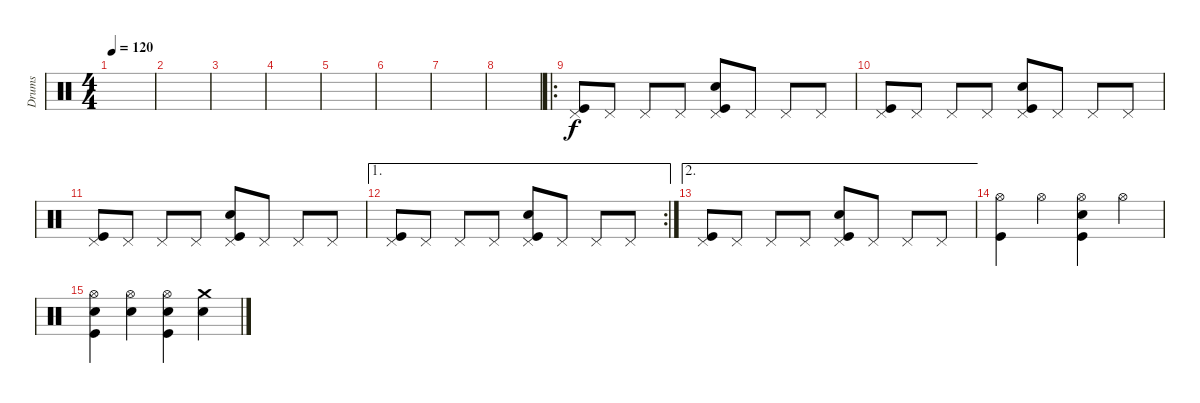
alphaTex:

\track ("Drums" "Drums") {instrument percussion}
\staff {score}
\articulation defaults
\ts (4 4)
\tempo 120
\clef neutral
\ks c
|
|
|
|
|
|
|
|
\ro
("Pedal Hi-Hat (hit)" "Kick (hit)").8 "Pedal Hi-Hat (hit)".8 "Pedal Hi-Hat (hit)".8 "Pedal Hi-Hat (hit)".8 ("Pedal Hi-Hat (hit)" "Snare (hit) 2" "Kick (hit)").8 "Pedal Hi-Hat (hit)".8 "Pedal Hi-Hat (hit)".8 "Pedal Hi-Hat (hit)".8 |
("Pedal Hi-Hat (hit)" "Kick (hit)").8 "Pedal Hi-Hat (hit)".8 "Pedal Hi-Hat (hit)".8 "Pedal Hi-Hat (hit)".8 ("Pedal Hi-Hat (hit)" "Snare (hit) 2" "Kick (hit)").8 "Pedal Hi-Hat (hit)".8 "Pedal Hi-Hat (hit)".8 "Pedal Hi-Hat (hit)".8 |
("Pedal Hi-Hat (hit)" "Kick (hit)").8 "Pedal Hi-Hat (hit)".8 "Pedal Hi-Hat (hit)".8 "Pedal Hi-Hat (hit)".8 ("Pedal Hi-Hat (hit)" "Snare (hit) 2" "Kick (hit)").8 "Pedal Hi-Hat (hit)".8 "Pedal Hi-Hat (hit)".8 "Pedal Hi-Hat (hit)".8 |
\ae 1
\rc 2
("Pedal Hi-Hat (hit)" "Kick (hit)").8 "Pedal Hi-Hat (hit)".8 "Pedal Hi-Hat (hit)".8 "Pedal Hi-Hat (hit)".8 ("Pedal Hi-Hat (hit)" "Snare (hit) 2" "Kick (hit)").8 "Pedal Hi-Hat (hit)".8 "Pedal Hi-Hat (hit)".8 "Pedal Hi-Hat (hit)".8 |
\ae 2
("Pedal Hi-Hat (hit)" "Kick (hit)").8 "Pedal Hi-Hat (hit)".8 "Pedal Hi-Hat (hit)".8 "Pedal Hi-Hat (hit)".8 ("Pedal Hi-Hat (hit)" "Snare (hit) 2" "Kick (hit)").8 "Pedal Hi-Hat (hit)".8 "Pedal Hi-Hat (hit)".8 "Pedal Hi-Hat (hit)".8 |
("Hi-Hat (open)" "Kick (hit)").4 "Hi-Hat (open)".4 ("Hi-Hat (open)" "Snare (hit) 2" "Kick (hit)").4 "Hi-Hat (open)".4 |
("Hi-Hat (open)" "Snare (hit) 2" "Kick (hit)").4 ("Hi-Hat (open)" "Snare (hit) 2").4 ("Hi-Hat (open)" "Snare (hit) 2" "Kick (hit)").4 ("Crash medium (hit)" "Snare (hit) 2").4
